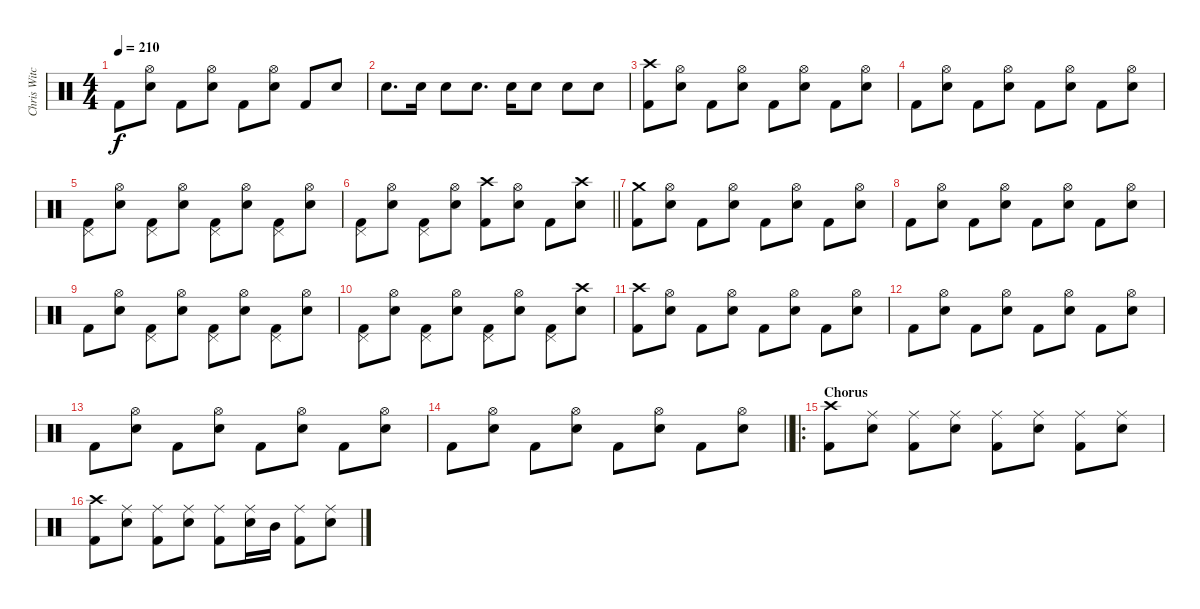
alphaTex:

\track ("Chris Witchunter" "Chris Witc") {instrument percussion}
\staff {score}
\articulation defaults
\ts (4 4)
\tempo 210
\clef neutral
\ks c "Kick (hit) 2".8{dy f}
("Hi-Hat (open)" "Snare (hit) 2").8 "Kick (hit) 2".8 ("Hi-Hat (open)" "Snare (hit) 2").8 "Kick (hit) 2".8 ("Hi-Hat (open)" "Snare (hit) 2").8 "Kick (hit) 2".8 "Snare (hit) 2".8 |
"Snare (hit) 2".8{d} "Snare (hit) 2".16 "Snare (hit) 2".8 "Snare (hit) 2".8{d} "Snare (hit) 2".16 "Snare (hit) 2".8 "Snare (hit) 2".8 "Snare (hit) 2".8 |
("Crash high (hit)" "Kick (hit) 2").8 ("Hi-Hat (open)" "Snare (hit) 2").8 "Kick (hit) 2".8 ("Hi-Hat (open)" "Snare (hit) 2").8 "Kick (hit) 2".8 ("Hi-Hat (open)" "Snare (hit) 2").8 "Kick (hit) 2".8 ("Hi-Hat (open)" "Snare (hit) 2").8 |
"Kick (hit) 2".8 ("Hi-Hat (open)" "Snare (hit) 2").8 "Kick (hit) 2".8 ("Hi-Hat (open)" "Snare (hit) 2").8 "Kick (hit) 2".8 ("Hi-Hat (open)" "Snare (hit) 2").8 "Kick (hit) 2".8 ("Hi-Hat (open)" "Snare (hit) 2").8 |
("Pedal Hi-Hat (hit)" "Kick (hit) 2").8 ("Hi-Hat (open)" "Snare (hit) 2").8 ("Pedal Hi-Hat (hit)" "Kick (hit) 2").8 ("Hi-Hat (open)" "Snare (hit) 2").8 ("Pedal Hi-Hat (hit)" "Kick (hit) 2").8 ("Hi-Hat (open)" "Snare (hit) 2").8 ("Pedal Hi-Hat (hit)" "Kick (hit) 2").8 ("Hi-Hat (open)" "Snare (hit) 2").8 |
\barLineRight lightlight
("Pedal Hi-Hat (hit)" "Kick (hit) 2").8 ("Hi-Hat (open)" "Snare (hit) 2").8 ("Pedal Hi-Hat (hit)" "Kick (hit) 2").8 ("Hi-Hat (open)" "Snare (hit) 2").8 ("Crash high (hit)" "Kick (hit) 2").8 ("Hi-Hat (open)" "Snare (hit) 2").8 "Kick (hit) 2".8 ("Crash high (hit)" "Snare (hit) 2").8 |
("Crash medium (hit)" "Kick (hit) 2").8 ("Hi-Hat (open)" "Snare (hit) 2").8 "Kick (hit) 2".8 ("Hi-Hat (open)" "Snare (hit) 2").8 "Kick (hit) 2".8 ("Hi-Hat (open)" "Snare (hit) 2").8 "Kick (hit) 2".8 ("Hi-Hat (open)" "Snare (hit) 2").8 |
"Kick (hit) 2".8 ("Hi-Hat (open)" "Snare (hit) 2").8 "Kick (hit) 2".8 ("Hi-Hat (open)" "Snare (hit) 2").8 "Kick (hit) 2".8 ("Hi-Hat (open)" "Snare (hit) 2").8 "Kick (hit) 2".8 ("Hi-Hat (open)" "Snare (hit) 2").8 |
"Kick (hit) 2".8 ("Hi-Hat (open)" "Snare (hit) 2").8 ("Pedal Hi-Hat (hit)" "Kick (hit) 2").8 ("Hi-Hat (open)" "Snare (hit) 2").8 ("Pedal Hi-Hat (hit)" "Kick (hit) 2").8 ("Hi-Hat (open)" "Snare (hit) 2").8 ("Pedal Hi-Hat (hit)" "Kick (hit) 2").8 ("Hi-Hat (open)" "Snare (hit) 2").8 |
("Pedal Hi-Hat (hit)" "Kick (hit) 2").8 ("Hi-Hat (open)" "Snare (hit) 2").8 ("Pedal Hi-Hat (hit)" "Kick (hit) 2").8 ("Hi-Hat (open)" "Snare (hit) 2").8 ("Pedal Hi-Hat (hit)" "Kick (hit) 2").8 ("Hi-Hat (open)" "Snare (hit) 2").8 ("Pedal Hi-Hat (hit)" "Kick (hit) 2").8 ("Crash high (hit)" "Snare (hit) 2").8 |
("Crash high (hit)" "Kick (hit) 2").8 ("Hi-Hat (open)" "Snare (hit) 2").8 "Kick (hit) 2".8 ("Hi-Hat (open)" "Snare (hit) 2").8 "Kick (hit) 2".8 ("Hi-Hat (open)" "Snare (hit) 2").8 "Kick (hit) 2".8 ("Hi-Hat (open)" "Snare (hit) 2").8 |
"Kick (hit) 2".8 ("Hi-Hat (open)" "Snare (hit) 2").8 "Kick (hit) 2".8 ("Hi-Hat (open)" "Snare (hit) 2").8 "Kick (hit) 2".8 ("Hi-Hat (open)" "Snare (hit) 2").8 "Kick (hit) 2".8 ("Hi-Hat (open)" "Snare (hit) 2").8 |
"Kick (hit) 2".8 ("Hi-Hat (open)" "Snare (hit) 2").8 "Kick (hit) 2".8 ("Hi-Hat (open)" "Snare (hit) 2").8 "Kick (hit) 2".8 ("Hi-Hat (open)" "Snare (hit) 2").8 "Kick (hit) 2".8 ("Hi-Hat (open)" "Snare (hit) 2").8 |
\barLineRight lightlight "Kick (hit) 2".8
("Hi-Hat (open)" "Snare (hit) 2").8 "Kick (hit) 2".8 ("Hi-Hat (open)" "Snare (hit) 2").8 "Kick (hit) 2".8 ("Hi-Hat (open)" "Snare (hit) 2").8 "Kick (hit) 2".8 ("Hi-Hat (open)" "Snare (hit) 2").8 |
\ro
\section ("" "Chorus")
("Crash high (hit)" "Kick (hit) 2").8 ("Ride (middle)" "Snare (hit) 2").8 ("Ride (middle)" "Kick (hit) 2").8 ("Ride (middle)" "Snare (hit) 2").8 ("Ride (middle)" "Kick (hit) 2").8 ("Ride (middle)" "Snare (hit) 2").8 ("Ride (middle)" "Kick (hit) 2").8 ("Ride (middle)" "Snare (hit) 2").8 |
("Crash high (hit)" "Kick (hit) 2").8 ("Ride (middle)" "Snare (hit) 2").8 ("Ride (middle)" "Kick (hit) 2").8 ("Ride (middle)" "Snare (hit) 2").8 ("Ride (middle)" "Kick (hit) 2").8 ("Ride (middle)" "Snare (hit) 2").16 "Mid Tom (hit)".16 ("Ride (middle)" "Kick (hit) 2").8 ("Ride (middle)" "Snare (hit) 2").8
